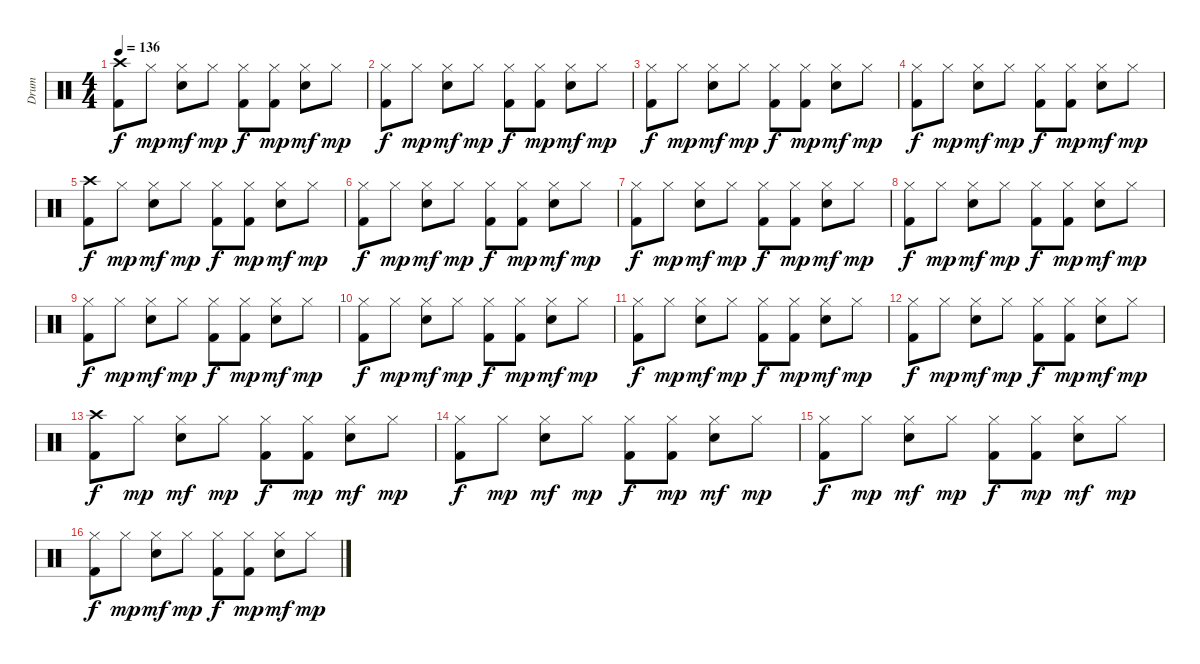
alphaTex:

\track ("Drum" "Drum") {instrument percussion}
\staff {score}
\articulation defaults
\ts (4 4)
\tempo 136
\clef neutral
\ks c
("Crash high (hit)" "Kick (hit) 2").8{dy f} "Hi-Hat (closed)".8{dy mp} ("Hi-Hat (closed)" "Snare (hit) 2").8{dy mf} "Hi-Hat (closed)".8{dy mp} ("Hi-Hat (closed)" "Kick (hit) 2").8{dy f} ("Hi-Hat (closed)" "Kick (hit) 2").8{dy mp} ("Hi-Hat (closed)" "Snare (hit) 2").8{dy mf} "Hi-Hat (closed)".8{dy mp} |
("Hi-Hat (closed)" "Kick (hit) 2").8{dy f} "Hi-Hat (closed)".8{dy mp} ("Hi-Hat (closed)" "Snare (hit) 2").8{dy mf} "Hi-Hat (closed)".8{dy mp} ("Hi-Hat (closed)" "Kick (hit) 2").8{dy f} ("Hi-Hat (closed)" "Kick (hit) 2").8{dy mp} ("Hi-Hat (closed)" "Snare (hit) 2").8{dy mf} "Hi-Hat (closed)".8{dy mp} |
("Hi-Hat (closed)" "Kick (hit) 2").8{dy f} "Hi-Hat (closed)".8{dy mp} ("Hi-Hat (closed)" "Snare (hit) 2").8{dy mf} "Hi-Hat (closed)".8{dy mp} ("Hi-Hat (closed)" "Kick (hit) 2").8{dy f} ("Hi-Hat (closed)" "Kick (hit) 2").8{dy mp} ("Hi-Hat (closed)" "Snare (hit) 2").8{dy mf} "Hi-Hat (closed)".8{dy mp} |
("Hi-Hat (closed)" "Kick (hit) 2").8{dy f} "Hi-Hat (closed)".8{dy mp} ("Hi-Hat (closed)" "Snare (hit) 2").8{dy mf} "Hi-Hat (closed)".8{dy mp} ("Hi-Hat (closed)" "Kick (hit) 2").8{dy f} ("Hi-Hat (closed)" "Kick (hit) 2").8{dy mp} ("Hi-Hat (closed)" "Snare (hit) 2").8{dy mf} "Hi-Hat (closed)".8{dy mp} |
("Crash high (hit)" "Kick (hit) 2").8{dy f} "Hi-Hat (closed)".8{dy mp} ("Hi-Hat (closed)" "Snare (hit) 2").8{dy mf} "Hi-Hat (closed)".8{dy mp} ("Hi-Hat (closed)" "Kick (hit) 2").8{dy f} ("Hi-Hat (closed)" "Kick (hit) 2").8{dy mp} ("Hi-Hat (closed)" "Snare (hit) 2").8{dy mf} "Hi-Hat (closed)".8{dy mp} |
("Hi-Hat (closed)" "Kick (hit) 2").8{dy f} "Hi-Hat (closed)".8{dy mp} ("Hi-Hat (closed)" "Snare (hit) 2").8{dy mf} "Hi-Hat (closed)".8{dy mp} ("Hi-Hat (closed)" "Kick (hit) 2").8{dy f} ("Hi-Hat (closed)" "Kick (hit) 2").8{dy mp} ("Hi-Hat (closed)" "Snare (hit) 2").8{dy mf} "Hi-Hat (closed)".8{dy mp} |
("Hi-Hat (closed)" "Kick (hit) 2").8{dy f} "Hi-Hat (closed)".8{dy mp} ("Hi-Hat (closed)" "Snare (hit) 2").8{dy mf} "Hi-Hat (closed)".8{dy mp} ("Hi-Hat (closed)" "Kick (hit) 2").8{dy f} ("Hi-Hat (closed)" "Kick (hit) 2").8{dy mp} ("Hi-Hat (closed)" "Snare (hit) 2").8{dy mf} "Hi-Hat (closed)".8{dy mp} |
("Hi-Hat (closed)" "Kick (hit) 2").8{dy f} "Hi-Hat (closed)".8{dy mp} ("Hi-Hat (closed)" "Snare (hit) 2").8{dy mf} "Hi-Hat (closed)".8{dy mp} ("Hi-Hat (closed)" "Kick (hit) 2").8{dy f} ("Hi-Hat (closed)" "Kick (hit) 2").8{dy mp} ("Hi-Hat (closed)" "Snare (hit) 2").8{dy mf} "Hi-Hat (closed)".8{dy mp} |
("Hi-Hat (closed)" "Kick (hit) 2").8{dy f} "Hi-Hat (closed)".8{dy mp} ("Hi-Hat (closed)" "Snare (hit) 2").8{dy mf} "Hi-Hat (closed)".8{dy mp} ("Hi-Hat (closed)" "Kick (hit) 2").8{dy f} ("Hi-Hat (closed)" "Kick (hit) 2").8{dy mp} ("Hi-Hat (closed)" "Snare (hit) 2").8{dy mf} "Hi-Hat (closed)".8{dy mp} |
("Hi-Hat (closed)" "Kick (hit) 2").8{dy f} "Hi-Hat (closed)".8{dy mp} ("Hi-Hat (closed)" "Snare (hit) 2").8{dy mf} "Hi-Hat (closed)".8{dy mp} ("Hi-Hat (closed)" "Kick (hit) 2").8{dy f} ("Hi-Hat (closed)" "Kick (hit) 2").8{dy mp} ("Hi-Hat (closed)" "Snare (hit) 2").8{dy mf} "Hi-Hat (closed)".8{dy mp} |
("Hi-Hat (closed)" "Kick (hit) 2").8{dy f} "Hi-Hat (closed)".8{dy mp} ("Hi-Hat (closed)" "Snare (hit) 2").8{dy mf} "Hi-Hat (closed)".8{dy mp} ("Hi-Hat (closed)" "Kick (hit) 2").8{dy f} ("Hi-Hat (closed)" "Kick (hit) 2").8{dy mp} ("Hi-Hat (closed)" "Snare (hit) 2").8{dy mf} "Hi-Hat (closed)".8{dy mp} |
("Hi-Hat (closed)" "Kick (hit) 2").8{dy f} "Hi-Hat (closed)".8{dy mp} ("Hi-Hat (closed)" "Snare (hit) 2").8{dy mf} "Hi-Hat (closed)".8{dy mp} ("Hi-Hat (closed)" "Kick (hit) 2").8{dy f} ("Hi-Hat (closed)" "Kick (hit) 2").8{dy mp} ("Hi-Hat (closed)" "Snare (hit) 2").8{dy mf} "Hi-Hat (closed)".8{dy mp} |
("Crash high (hit)" "Kick (hit) 2").8{dy f} "Hi-Hat (closed)".8{dy mp} ("Hi-Hat (closed)" "Snare (hit) 2").8{dy mf} "Hi-Hat (closed)".8{dy mp} ("Hi-Hat (closed)" "Kick (hit) 2").8{dy f} ("Hi-Hat (closed)" "Kick (hit) 2").8{dy mp} ("Hi-Hat (closed)" "Snare (hit) 2").8{dy mf} "Hi-Hat (closed)".8{dy mp} |
("Hi-Hat (closed)" "Kick (hit) 2").8{dy f} "Hi-Hat (closed)".8{dy mp} ("Hi-Hat (closed)" "Snare (hit) 2").8{dy mf} "Hi-Hat (closed)".8{dy mp} ("Hi-Hat (closed)" "Kick (hit) 2").8{dy f} ("Hi-Hat (closed)" "Kick (hit) 2").8{dy mp} ("Hi-Hat (closed)" "Snare (hit) 2").8{dy mf} "Hi-Hat (closed)".8{dy mp} |
("Hi-Hat (closed)" "Kick (hit) 2").8{dy f} "Hi-Hat (closed)".8{dy mp} ("Hi-Hat (closed)" "Snare (hit) 2").8{dy mf} "Hi-Hat (closed)".8{dy mp} ("Hi-Hat (closed)" "Kick (hit) 2").8{dy f} ("Hi-Hat (closed)" "Kick (hit) 2").8{dy mp} ("Hi-Hat (closed)" "Snare (hit) 2").8{dy mf} "Hi-Hat (closed)".8{dy mp} |
("Hi-Hat (closed)" "Kick (hit) 2").8{dy f} "Hi-Hat (closed)".8{dy mp} ("Hi-Hat (closed)" "Snare (hit) 2").8{dy mf} "Hi-Hat (closed)".8{dy mp} ("Hi-Hat (closed)" "Kick (hit) 2").8{dy f} ("Hi-Hat (closed)" "Kick (hit) 2").8{dy mp} ("Hi-Hat (closed)" "Snare (hit) 2").8{dy mf} "Hi-Hat (closed)".8{dy mp}
